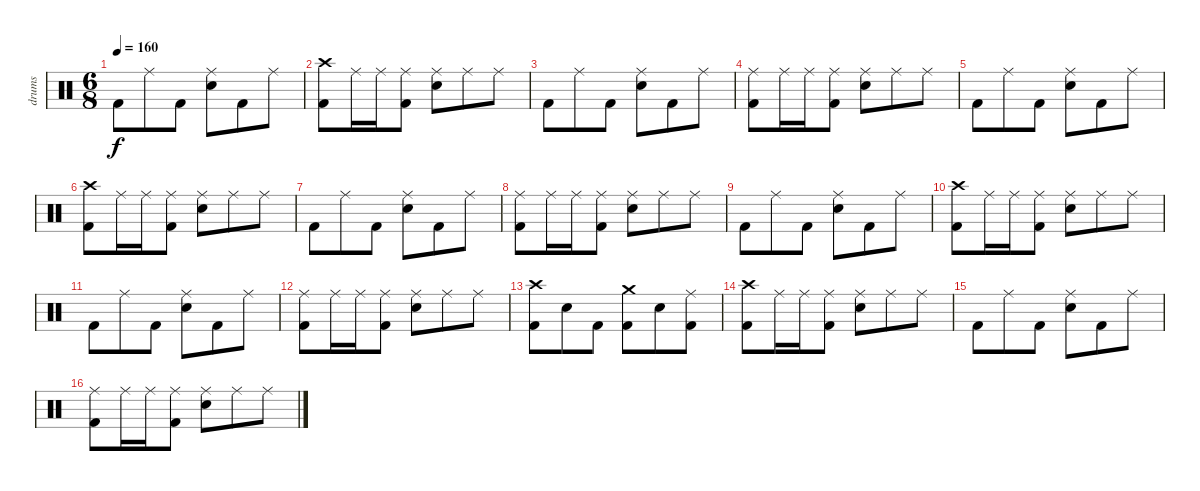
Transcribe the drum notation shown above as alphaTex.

\track ("drums" "drums") {instrument percussion}
\staff {score}
\articulation defaults
\ts (6 8)
\tempo 160
\clef neutral
\ks c "Kick (hit) 2".8{dy f} "Ride (middle)".8 "Kick (hit) 2".8
("Electric Snare (hit)" "Ride (middle)").8 "Kick (hit) 2".8 "Ride (middle)".8 |
("Kick (hit) 2" "Crash high (hit)").8 "Ride (middle)".16 "Ride (middle)".16 ("Kick (hit) 2" "Ride (middle)").8 ("Electric Snare (hit)" "Ride (middle)").8 "Ride (middle)".8 "Ride (middle)".8 |
"Kick (hit) 2".8 "Ride (middle)".8 "Kick (hit) 2".8 ("Electric Snare (hit)" "Ride (middle)").8 "Kick (hit) 2".8 "Ride (middle)".8 |
("Ride (middle)" "Kick (hit) 2").8 "Ride (middle)".16 "Ride (middle)".16 ("Kick (hit) 2" "Ride (middle)").8 ("Electric Snare (hit)" "Ride (middle)").8 "Ride (middle)".8 "Ride (middle)".8 |
"Kick (hit) 2".8 "Ride (middle)".8 "Kick (hit) 2".8 ("Electric Snare (hit)" "Ride (middle)").8 "Kick (hit) 2".8 "Ride (middle)".8 |
("Kick (hit) 2" "Crash high (hit)").8 "Ride (middle)".16 "Ride (middle)".16 ("Kick (hit) 2" "Ride (middle)").8 ("Electric Snare (hit)" "Ride (middle)").8 "Ride (middle)".8 "Ride (middle)".8 |
"Kick (hit) 2".8 "Ride (middle)".8 "Kick (hit) 2".8 ("Electric Snare (hit)" "Ride (middle)").8 "Kick (hit) 2".8 "Ride (middle)".8 |
("Ride (middle)" "Kick (hit) 2").8 "Ride (middle)".16 "Ride (middle)".16 ("Kick (hit) 2" "Ride (middle)").8 ("Electric Snare (hit)" "Ride (middle)").8 "Ride (middle)".8 "Ride (middle)".8 |
"Kick (hit) 2".8 "Ride (middle)".8 "Kick (hit) 2".8 ("Electric Snare (hit)" "Ride (middle)").8 "Kick (hit) 2".8 "Ride (middle)".8 |
("Kick (hit) 2" "Crash high (hit)").8 "Ride (middle)".16 "Ride (middle)".16 ("Kick (hit) 2" "Ride (middle)").8 ("Electric Snare (hit)" "Ride (middle)").8 "Ride (middle)".8 "Ride (middle)".8 |
"Kick (hit) 2".8 "Ride (middle)".8 "Kick (hit) 2".8 ("Electric Snare (hit)" "Ride (middle)").8 "Kick (hit) 2".8 "Ride (middle)".8 |
("Ride (middle)" "Kick (hit) 2").8 "Ride (middle)".16 "Ride (middle)".16 ("Kick (hit) 2" "Ride (middle)").8 ("Electric Snare (hit)" "Ride (middle)").8 "Ride (middle)".8 "Ride (middle)".8 |
("Crash high (hit)" "Kick (hit) 2").8 "Electric Snare (hit)".8 "Kick (hit) 2".8 ("Crash medium (hit)" "Kick (hit) 2").8 "Electric Snare (hit)".8 ("Kick (hit) 2" "Ride (middle)").8 |
("Kick (hit) 2" "Crash high (hit)").8 "Ride (middle)".16 "Ride (middle)".16 ("Kick (hit) 2" "Ride (middle)").8 ("Electric Snare (hit)" "Ride (middle)").8 "Ride (middle)".8 "Ride (middle)".8 |
"Kick (hit) 2".8 "Ride (middle)".8 "Kick (hit) 2".8 ("Electric Snare (hit)" "Ride (middle)").8 "Kick (hit) 2".8 "Ride (middle)".8 |
("Ride (middle)" "Kick (hit) 2").8 "Ride (middle)".16 "Ride (middle)".16 ("Kick (hit) 2" "Ride (middle)").8 ("Electric Snare (hit)" "Ride (middle)").8 "Ride (middle)".8 "Ride (middle)".8
